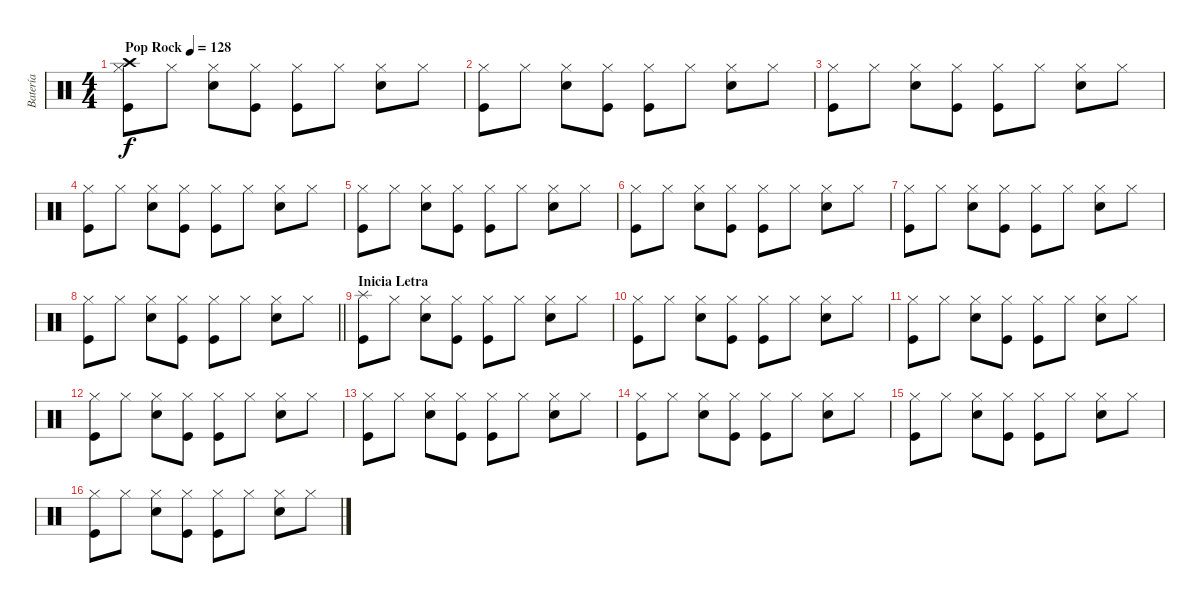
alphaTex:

\track ("Batería" "Batería") {instrument percussion}
\staff {score}
\articulation defaults
\ts (4 4)
\tempo (128 "Pop Rock")
\clef neutral
\ks c
("Hi-Hat (closed)" "Kick (hit)" "Crash high (hit)").8{dy f} "Hi-Hat (closed)".8 ("Hi-Hat (closed)" "Snare (hit) 2").8 ("Hi-Hat (closed)" "Kick (hit)").8 ("Hi-Hat (closed)" "Kick (hit)").8 "Hi-Hat (closed)".8 ("Hi-Hat (closed)" "Snare (hit) 2").8 "Hi-Hat (closed)".8 |
("Hi-Hat (closed)" "Kick (hit)").8 "Hi-Hat (closed)".8 ("Hi-Hat (closed)" "Snare (hit) 2").8 ("Hi-Hat (closed)" "Kick (hit)").8 ("Hi-Hat (closed)" "Kick (hit)").8 "Hi-Hat (closed)".8 ("Hi-Hat (closed)" "Snare (hit) 2").8 "Hi-Hat (closed)".8 |
("Hi-Hat (closed)" "Kick (hit)").8 "Hi-Hat (closed)".8 ("Hi-Hat (closed)" "Snare (hit) 2").8 ("Hi-Hat (closed)" "Kick (hit)").8 ("Hi-Hat (closed)" "Kick (hit)").8 "Hi-Hat (closed)".8 ("Hi-Hat (closed)" "Snare (hit) 2").8 "Hi-Hat (closed)".8 |
("Hi-Hat (closed)" "Kick (hit)").8 "Hi-Hat (closed)".8 ("Hi-Hat (closed)" "Snare (hit) 2").8 ("Hi-Hat (closed)" "Kick (hit)").8 ("Hi-Hat (closed)" "Kick (hit)").8 "Hi-Hat (closed)".8 ("Hi-Hat (closed)" "Snare (hit) 2").8 "Hi-Hat (closed)".8 |
("Hi-Hat (closed)" "Kick (hit)").8 "Hi-Hat (closed)".8 ("Hi-Hat (closed)" "Snare (hit) 2").8 ("Hi-Hat (closed)" "Kick (hit)").8 ("Hi-Hat (closed)" "Kick (hit)").8 "Hi-Hat (closed)".8 ("Hi-Hat (closed)" "Snare (hit) 2").8 "Hi-Hat (closed)".8 |
("Hi-Hat (closed)" "Kick (hit)").8 "Hi-Hat (closed)".8 ("Hi-Hat (closed)" "Snare (hit) 2").8 ("Hi-Hat (closed)" "Kick (hit)").8 ("Hi-Hat (closed)" "Kick (hit)").8 "Hi-Hat (closed)".8 ("Hi-Hat (closed)" "Snare (hit) 2").8 "Hi-Hat (closed)".8 |
("Hi-Hat (closed)" "Kick (hit)").8 "Hi-Hat (closed)".8 ("Hi-Hat (closed)" "Snare (hit) 2").8 ("Hi-Hat (closed)" "Kick (hit)").8 ("Hi-Hat (closed)" "Kick (hit)").8 "Hi-Hat (closed)".8 ("Hi-Hat (closed)" "Snare (hit) 2").8 "Hi-Hat (closed)".8 |
\barLineRight lightlight
("Hi-Hat (closed)" "Kick (hit)").8 "Hi-Hat (closed)".8 ("Hi-Hat (closed)" "Snare (hit) 2").8 ("Hi-Hat (closed)" "Kick (hit)").8 ("Hi-Hat (closed)" "Kick (hit)").8 "Hi-Hat (closed)".8 ("Hi-Hat (closed)" "Snare (hit) 2").8 "Hi-Hat (closed)".8 |
\section ("" "Inicia Letra")
("Splash (hit)" "Kick (hit)").8 "Hi-Hat (closed)".8 ("Hi-Hat (closed)" "Snare (hit) 2").8 ("Hi-Hat (closed)" "Kick (hit)").8 ("Hi-Hat (closed)" "Kick (hit)").8 "Hi-Hat (closed)".8 ("Hi-Hat (closed)" "Snare (hit) 2").8 "Hi-Hat (closed)".8 |
("Hi-Hat (closed)" "Kick (hit)").8 "Hi-Hat (closed)".8 ("Hi-Hat (closed)" "Snare (hit) 2").8 ("Hi-Hat (closed)" "Kick (hit)").8 ("Hi-Hat (closed)" "Kick (hit)").8 "Hi-Hat (closed)".8 ("Hi-Hat (closed)" "Snare (hit) 2").8 "Hi-Hat (closed)".8 |
("Hi-Hat (closed)" "Kick (hit)").8 "Hi-Hat (closed)".8 ("Hi-Hat (closed)" "Snare (hit) 2").8 ("Hi-Hat (closed)" "Kick (hit)").8 ("Hi-Hat (closed)" "Kick (hit)").8 "Hi-Hat (closed)".8 ("Hi-Hat (closed)" "Snare (hit) 2").8 "Hi-Hat (closed)".8 |
("Hi-Hat (closed)" "Kick (hit)").8 "Hi-Hat (closed)".8 ("Hi-Hat (closed)" "Snare (hit) 2").8 ("Hi-Hat (closed)" "Kick (hit)").8 ("Hi-Hat (closed)" "Kick (hit)").8 "Hi-Hat (closed)".8 ("Hi-Hat (closed)" "Snare (hit) 2").8 "Hi-Hat (closed)".8 |
("Hi-Hat (closed)" "Kick (hit)").8 "Hi-Hat (closed)".8 ("Hi-Hat (closed)" "Snare (hit) 2").8 ("Hi-Hat (closed)" "Kick (hit)").8 ("Hi-Hat (closed)" "Kick (hit)").8 "Hi-Hat (closed)".8 ("Hi-Hat (closed)" "Snare (hit) 2").8 "Hi-Hat (closed)".8 |
("Hi-Hat (closed)" "Kick (hit)").8 "Hi-Hat (closed)".8 ("Hi-Hat (closed)" "Snare (hit) 2").8 ("Hi-Hat (closed)" "Kick (hit)").8 ("Hi-Hat (closed)" "Kick (hit)").8 "Hi-Hat (closed)".8 ("Hi-Hat (closed)" "Snare (hit) 2").8 "Hi-Hat (closed)".8 |
("Hi-Hat (closed)" "Kick (hit)").8 "Hi-Hat (closed)".8 ("Hi-Hat (closed)" "Snare (hit) 2").8 ("Hi-Hat (closed)" "Kick (hit)").8 ("Hi-Hat (closed)" "Kick (hit)").8 "Hi-Hat (closed)".8 ("Hi-Hat (closed)" "Snare (hit) 2").8 "Hi-Hat (closed)".8 |
("Hi-Hat (closed)" "Kick (hit)").8 "Hi-Hat (closed)".8 ("Hi-Hat (closed)" "Snare (hit) 2").8 ("Hi-Hat (closed)" "Kick (hit)").8 ("Hi-Hat (closed)" "Kick (hit)").8 "Hi-Hat (closed)".8 ("Hi-Hat (closed)" "Snare (hit) 2").8 "Hi-Hat (closed)".8
